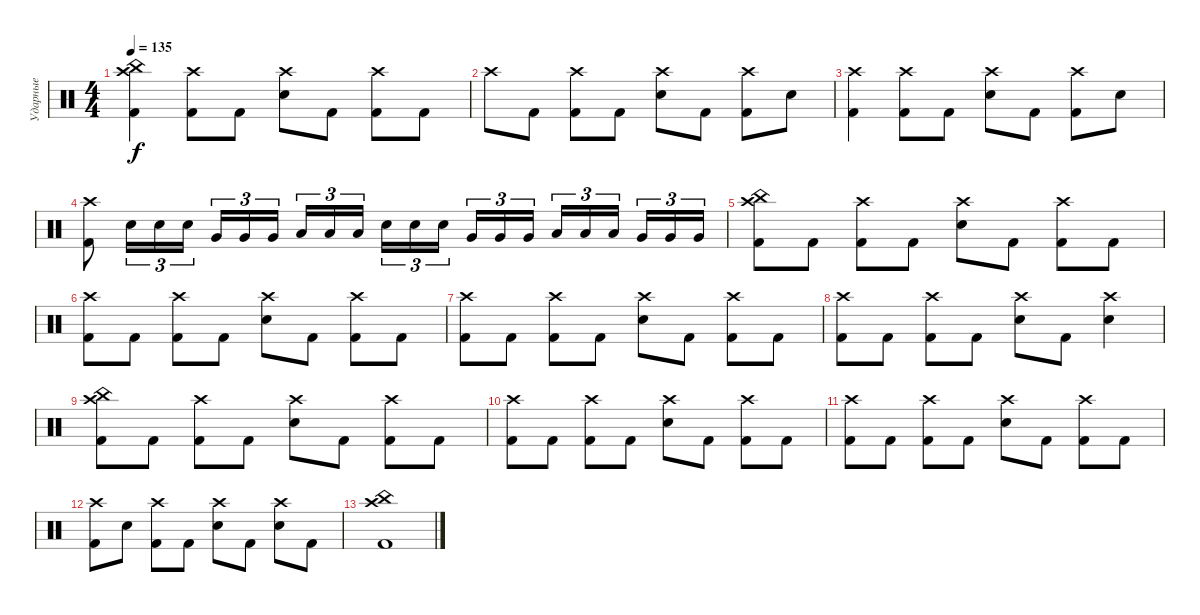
\track ("Ударные" "Ударные") {instrument percussion}
\staff {score}
\articulation defaults
\ts (4 4)
\tempo 135
\clef neutral
\ks c
("Crash high (hit)" "China (hit)" "Kick (hit) 2").4{dy f} ("Crash high (hit)" "Kick (hit) 2").8 "Kick (hit) 2".8 ("Crash high (hit)" "Electric Snare (hit)").8 "Kick (hit) 2".8 ("Crash high (hit)" "Kick (hit) 2").8 "Kick (hit) 2".8 |
"Crash high (hit)".8 "Kick (hit) 2".8 ("Crash high (hit)" "Kick (hit) 2").8 "Kick (hit) 2".8 ("Crash high (hit)" "Electric Snare (hit)").8 "Kick (hit) 2".8 ("Crash high (hit)" "Kick (hit) 2").8 "Electric Snare (hit)".8 |
("Crash high (hit)" "Kick (hit) 2").4 ("Crash high (hit)" "Kick (hit) 2").8 "Kick (hit) 2".8 ("Crash high (hit)" "Electric Snare (hit)").8 "Kick (hit) 2".8 ("Crash high (hit)" "Kick (hit) 2").8 "Electric Snare (hit)".8 |
("Crash high (hit)" "Kick (hit) 2").8 "Electric Snare (hit)".16{tu (3 2)} "Electric Snare (hit)".16{tu (3 2)} "Electric Snare (hit)".16{tu (3 2)} "Very Low Tom (hit)".16{tu (3 2)} "Very Low Tom (hit)".16{tu (3 2)} "Very Low Tom (hit)".16{tu (3 2) beam splitsecondary} "Low Floor Tom (hit)".16{tu (3 2)} "Low Floor Tom (hit)".16{tu (3 2)} "Low Floor Tom (hit)".16{tu (3 2)} "Electric Snare (hit)".16{tu (3 2)} "Electric Snare (hit)".16{tu (3 2)} "Electric Snare (hit)".16{tu (3 2) beam splitsecondary} "Very Low Tom (hit)".16{tu (3 2)} "Very Low Tom (hit)".16{tu (3 2)} "Very Low Tom (hit)".16{tu (3 2)} "Low Floor Tom (hit)".16{tu (3 2)} "Low Floor Tom (hit)".16{tu (3 2)} "Low Floor Tom (hit)".16{tu (3 2) beam splitsecondary} "Very Low Tom (hit)".16{tu (3 2)} "Very Low Tom (hit)".16{tu (3 2)} "Very Low Tom (hit)".16{tu (3 2)} |
("Crash high (hit)" "China (hit)" "Kick (hit) 2").8 "Kick (hit) 2".8 ("Crash high (hit)" "Kick (hit) 2").8 "Kick (hit) 2".8 ("Crash high (hit)" "Electric Snare (hit)").8 "Kick (hit) 2".8 ("Crash high (hit)" "Kick (hit) 2").8 "Kick (hit) 2".8 |
("Crash high (hit)" "Kick (hit) 2").8 "Kick (hit) 2".8 ("Crash high (hit)" "Kick (hit) 2").8 "Kick (hit) 2".8 ("Crash high (hit)" "Electric Snare (hit)").8 "Kick (hit) 2".8 ("Crash high (hit)" "Kick (hit) 2").8 "Kick (hit) 2".8 |
("Crash high (hit)" "Kick (hit) 2").8 "Kick (hit) 2".8 ("Crash high (hit)" "Kick (hit) 2").8 "Kick (hit) 2".8 ("Crash high (hit)" "Electric Snare (hit)").8 "Kick (hit) 2".8 ("Crash high (hit)" "Kick (hit) 2").8 "Kick (hit) 2".8 |
("Crash high (hit)" "Kick (hit) 2").8 "Kick (hit) 2".8 ("Crash high (hit)" "Kick (hit) 2").8 "Kick (hit) 2".8 ("Crash high (hit)" "Electric Snare (hit)").8 "Kick (hit) 2".8 ("Crash high (hit)" "Electric Snare (hit)").4 |
("Crash high (hit)" "China (hit)" "Kick (hit) 2").8 "Kick (hit) 2".8 ("Crash high (hit)" "Kick (hit) 2").8 "Kick (hit) 2".8 ("Crash high (hit)" "Electric Snare (hit)").8 "Kick (hit) 2".8 ("Crash high (hit)" "Kick (hit) 2").8 "Kick (hit) 2".8 |
("Crash high (hit)" "Kick (hit) 2").8 "Kick (hit) 2".8 ("Crash high (hit)" "Kick (hit) 2").8 "Kick (hit) 2".8 ("Crash high (hit)" "Electric Snare (hit)").8 "Kick (hit) 2".8 ("Crash high (hit)" "Kick (hit) 2").8 "Kick (hit) 2".8 |
("Crash high (hit)" "Kick (hit) 2").8 "Kick (hit) 2".8 ("Crash high (hit)" "Kick (hit) 2").8 "Kick (hit) 2".8 ("Crash high (hit)" "Electric Snare (hit)").8 "Kick (hit) 2".8 ("Crash high (hit)" "Kick (hit) 2").8 "Kick (hit) 2".8 |
("Crash high (hit)" "Kick (hit) 2").8 "Electric Snare (hit)".8 ("Crash high (hit)" "Kick (hit) 2").8 "Kick (hit) 2".8 ("Crash high (hit)" "Electric Snare (hit)").8 "Kick (hit) 2".8 ("Crash high (hit)" "Electric Snare (hit)").8 "Kick (hit) 2".8 |
("Crash high (hit)" "China (hit)" "Kick (hit) 2").1
